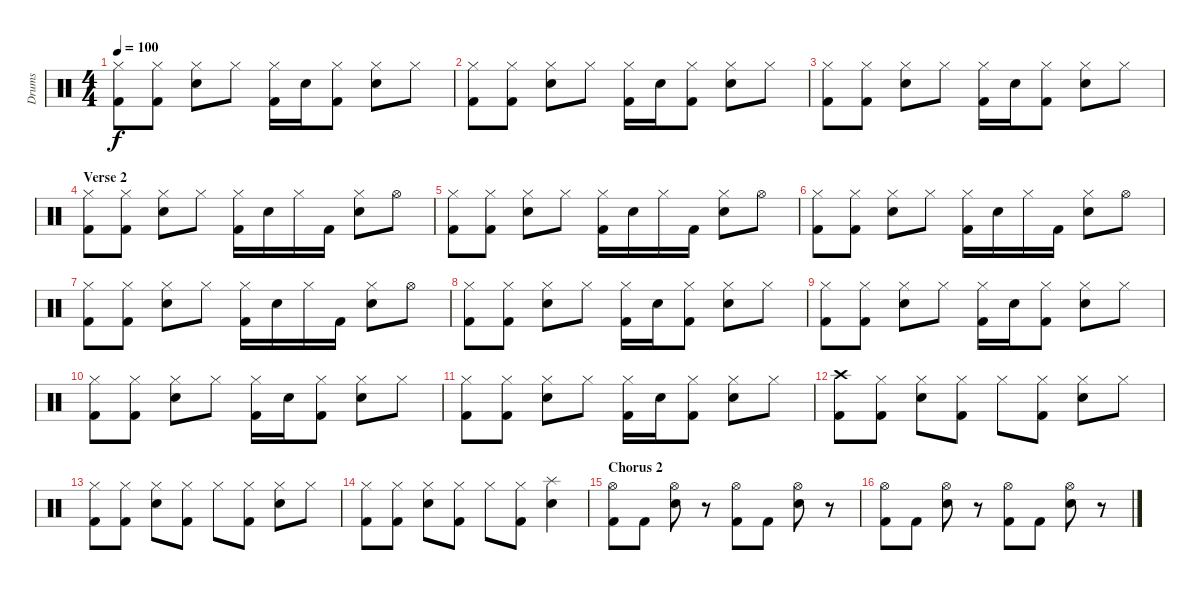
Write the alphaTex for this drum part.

\track ("Drums" "Drums") {instrument percussion}
\staff {score}
\articulation defaults
\ts (4 4)
\tempo 100
\clef neutral
\ks c
("Hi-Hat (closed)" "Kick (hit) 2").8{dy f} ("Hi-Hat (closed)" "Kick (hit) 2").8 ("Hi-Hat (closed)" "Snare (hit) 2").8 "Hi-Hat (closed)".8 ("Hi-Hat (closed)" "Kick (hit) 2").16 "Snare (hit) 2".16 ("Hi-Hat (closed)" "Kick (hit) 2").8 ("Hi-Hat (closed)" "Snare (hit) 2").8 "Hi-Hat (closed)".8 |
("Hi-Hat (closed)" "Kick (hit) 2").8 ("Hi-Hat (closed)" "Kick (hit) 2").8 ("Hi-Hat (closed)" "Snare (hit) 2").8 "Hi-Hat (closed)".8 ("Hi-Hat (closed)" "Kick (hit) 2").16 "Snare (hit) 2".16 ("Hi-Hat (closed)" "Kick (hit) 2").8 ("Hi-Hat (closed)" "Snare (hit) 2").8 "Hi-Hat (closed)".8 |
("Hi-Hat (closed)" "Kick (hit) 2").8 ("Hi-Hat (closed)" "Kick (hit) 2").8 ("Hi-Hat (closed)" "Snare (hit) 2").8 "Hi-Hat (closed)".8 ("Hi-Hat (closed)" "Kick (hit) 2").16 "Snare (hit) 2".16 ("Hi-Hat (closed)" "Kick (hit) 2").8 ("Hi-Hat (closed)" "Snare (hit) 2").8 "Hi-Hat (closed)".8 |
\section ("" "Verse 2")
("Hi-Hat (closed)" "Kick (hit) 2").8 ("Hi-Hat (closed)" "Kick (hit) 2").8 ("Hi-Hat (closed)" "Snare (hit) 2").8 "Hi-Hat (closed)".8 ("Hi-Hat (closed)" "Kick (hit) 2").16 "Snare (hit) 2".16 "Hi-Hat (closed)".16 "Kick (hit) 2".16 ("Hi-Hat (closed)" "Snare (hit) 2").8 "Hi-Hat (open)".8 |
("Hi-Hat (closed)" "Kick (hit) 2").8 ("Hi-Hat (closed)" "Kick (hit) 2").8 ("Hi-Hat (closed)" "Snare (hit) 2").8 "Hi-Hat (closed)".8 ("Hi-Hat (closed)" "Kick (hit) 2").16 "Snare (hit) 2".16 "Hi-Hat (closed)".16 "Kick (hit) 2".16 ("Hi-Hat (closed)" "Snare (hit) 2").8 "Hi-Hat (open)".8 |
("Hi-Hat (closed)" "Kick (hit) 2").8 ("Hi-Hat (closed)" "Kick (hit) 2").8 ("Hi-Hat (closed)" "Snare (hit) 2").8 "Hi-Hat (closed)".8 ("Hi-Hat (closed)" "Kick (hit) 2").16 "Snare (hit) 2".16 "Hi-Hat (closed)".16 "Kick (hit) 2".16 ("Hi-Hat (closed)" "Snare (hit) 2").8 "Hi-Hat (open)".8 |
("Hi-Hat (closed)" "Kick (hit) 2").8 ("Hi-Hat (closed)" "Kick (hit) 2").8 ("Hi-Hat (closed)" "Snare (hit) 2").8 "Hi-Hat (closed)".8 ("Hi-Hat (closed)" "Kick (hit) 2").16 "Snare (hit) 2".16 "Hi-Hat (closed)".16 "Kick (hit) 2".16 ("Hi-Hat (closed)" "Snare (hit) 2").8 "Hi-Hat (open)".8 |
("Hi-Hat (closed)" "Kick (hit) 2").8 ("Hi-Hat (closed)" "Kick (hit) 2").8 ("Hi-Hat (closed)" "Snare (hit) 2").8 "Hi-Hat (closed)".8 ("Hi-Hat (closed)" "Kick (hit) 2").16 "Snare (hit) 2".16 ("Hi-Hat (closed)" "Kick (hit) 2").8 ("Hi-Hat (closed)" "Snare (hit) 2").8 "Hi-Hat (closed)".8 |
("Hi-Hat (closed)" "Kick (hit) 2").8 ("Hi-Hat (closed)" "Kick (hit) 2").8 ("Hi-Hat (closed)" "Snare (hit) 2").8 "Hi-Hat (closed)".8 ("Hi-Hat (closed)" "Kick (hit) 2").16 "Snare (hit) 2".16 ("Hi-Hat (closed)" "Kick (hit) 2").8 ("Hi-Hat (closed)" "Snare (hit) 2").8 "Hi-Hat (closed)".8 |
("Hi-Hat (closed)" "Kick (hit) 2").8 ("Hi-Hat (closed)" "Kick (hit) 2").8 ("Hi-Hat (closed)" "Snare (hit) 2").8 "Hi-Hat (closed)".8 ("Hi-Hat (closed)" "Kick (hit) 2").16 "Snare (hit) 2".16 ("Hi-Hat (closed)" "Kick (hit) 2").8 ("Hi-Hat (closed)" "Snare (hit) 2").8 "Hi-Hat (closed)".8 |
("Hi-Hat (closed)" "Kick (hit) 2").8 ("Hi-Hat (closed)" "Kick (hit) 2").8 ("Hi-Hat (closed)" "Snare (hit) 2").8 "Hi-Hat (closed)".8 ("Hi-Hat (closed)" "Kick (hit) 2").16 "Snare (hit) 2".16 ("Hi-Hat (closed)" "Kick (hit) 2").8 ("Hi-Hat (closed)" "Snare (hit) 2").8 "Hi-Hat (closed)".8 |
("Crash high (hit)" "Kick (hit) 2").8 ("Hi-Hat (closed)" "Kick (hit) 2").8 ("Hi-Hat (closed)" "Snare (hit) 2").8 ("Hi-Hat (closed)" "Kick (hit) 2").8 "Hi-Hat (closed)".8 ("Hi-Hat (closed)" "Kick (hit) 2").8 ("Hi-Hat (closed)" "Snare (hit) 2").8 "Hi-Hat (closed)".8 |
("Hi-Hat (closed)" "Kick (hit) 2").8 ("Hi-Hat (closed)" "Kick (hit) 2").8 ("Hi-Hat (closed)" "Snare (hit) 2").8 ("Hi-Hat (closed)" "Kick (hit) 2").8 "Hi-Hat (closed)".8 ("Hi-Hat (closed)" "Kick (hit) 2").8 ("Hi-Hat (closed)" "Snare (hit) 2").8 "Hi-Hat (closed)".8 |
("Hi-Hat (closed)" "Kick (hit) 2").8 ("Hi-Hat (closed)" "Kick (hit) 2").8 ("Hi-Hat (closed)" "Snare (hit) 2").8 ("Hi-Hat (closed)" "Kick (hit) 2").8 "Hi-Hat (closed)".8 ("Hi-Hat (closed)" "Kick (hit) 2").8 ("Splash (hit)" "Snare (hit) 2").4 |
\section ("" "Chorus 2")
("Hi-Hat (open)" "Kick (hit) 2").8 "Kick (hit) 2".8 ("Hi-Hat (open)" "Snare (hit) 2").8 r.8 ("Hi-Hat (open)" "Kick (hit) 2").8 "Kick (hit) 2".8 ("Hi-Hat (open)" "Snare (hit) 2").8 r.8 |
("Hi-Hat (open)" "Kick (hit) 2").8 "Kick (hit) 2".8 ("Hi-Hat (open)" "Snare (hit) 2").8 r.8 ("Hi-Hat (open)" "Kick (hit) 2").8 "Kick (hit) 2".8 ("Hi-Hat (open)" "Snare (hit) 2").8 r.8
